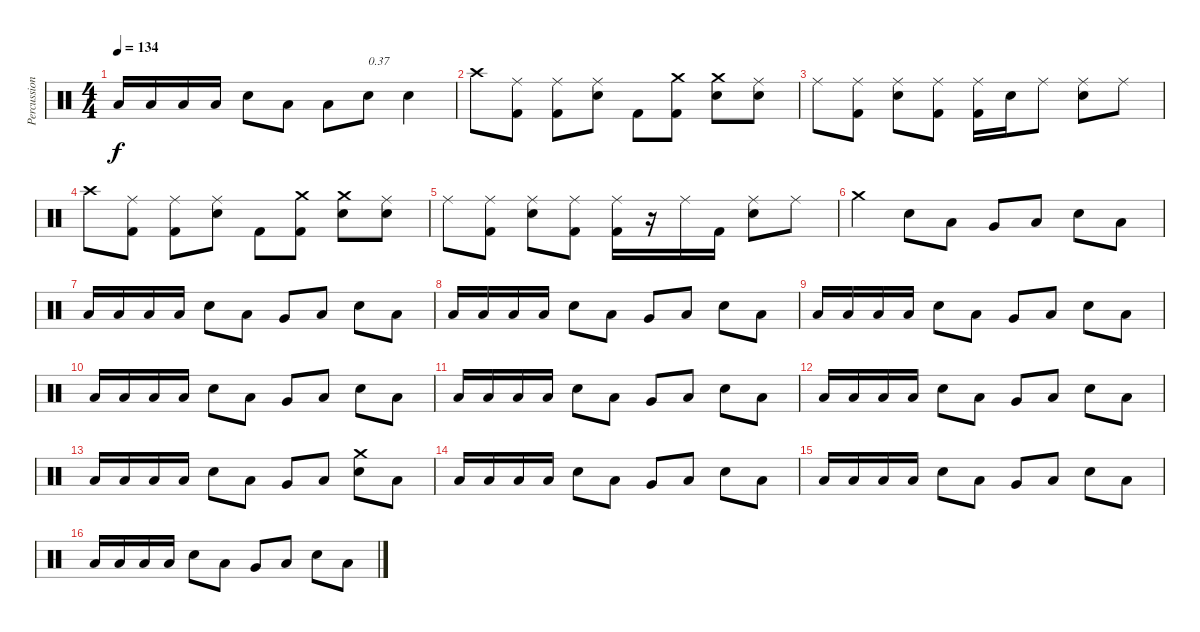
\track ("Percussions" "Percussion") {instrument percussion}
\staff {score}
\articulation defaults
\ts (4 4)
\tempo 134
\clef neutral
\ks c "Low Floor Tom (hit)".16{dy f} "Low Floor Tom (hit)".16 "Low Floor Tom (hit)".16 "Low Floor Tom (hit)".16 "Electric Snare (hit)".8 "Low Floor Tom (hit)".8 "Low Floor Tom (hit)".8 "Electric Snare (hit)".8{txt "0.37"} "Electric Snare (hit)".4
|
"Crash high (hit)".8 ("Kick (hit) 2" "Ride (middle)").8 ("Kick (hit) 2" "Ride (middle)").8 ("Electric Snare (hit)" "Ride (middle)").8 "Kick (hit) 2".8 ("Kick (hit) 2" "Crash medium (hit)").8 ("Electric Snare (hit)" "Crash medium (hit)").8 ("Electric Snare (hit)" "Ride (middle)").8 |
"Ride (middle)".8 ("Kick (hit) 2" "Ride (middle)").8 ("Electric Snare (hit)" "Ride (middle)").8 ("Kick (hit) 2" "Ride (middle)").8 ("Kick (hit) 2" "Ride (middle)").16 "Electric Snare (hit)".16 "Ride (middle)".8 ("Electric Snare (hit)" "Ride (middle)").8 "Ride (middle)".8 |
"Crash high (hit)".8 ("Kick (hit) 2" "Ride (middle)").8 ("Kick (hit) 2" "Ride (middle)").8 ("Electric Snare (hit)" "Ride (middle)").8 "Kick (hit) 2".8 ("Kick (hit) 2" "Crash medium (hit)").8 ("Electric Snare (hit)" "Crash medium (hit)").8 ("Electric Snare (hit)" "Ride (middle)").8 |
"Ride (middle)".8 ("Kick (hit) 2" "Ride (middle)").8 ("Electric Snare (hit)" "Ride (middle)").8 ("Kick (hit) 2" "Ride (middle)").8 ("Kick (hit) 2" "Ride (middle)").16 r.16 "Ride (middle)".16 "Kick (hit) 2".16 ("Electric Snare (hit)" "Ride (middle)").8 "Ride (middle)".8 |
"Crash medium (hit)".4 "Electric Snare (hit)".8 "Low Floor Tom (hit)".8 "Very Low Tom (hit)".8 "Low Floor Tom (hit)".8 "Electric Snare (hit)".8 "Low Floor Tom (hit)".8 |
"Low Floor Tom (hit)".16 "Low Floor Tom (hit)".16 "Low Floor Tom (hit)".16 "Low Floor Tom (hit)".16 "Electric Snare (hit)".8 "Low Floor Tom (hit)".8 "Very Low Tom (hit)".8 "Low Floor Tom (hit)".8 "Electric Snare (hit)".8 "Low Floor Tom (hit)".8 |
"Low Floor Tom (hit)".16 "Low Floor Tom (hit)".16 "Low Floor Tom (hit)".16 "Low Floor Tom (hit)".16 "Electric Snare (hit)".8 "Low Floor Tom (hit)".8 "Very Low Tom (hit)".8 "Low Floor Tom (hit)".8 "Electric Snare (hit)".8 "Low Floor Tom (hit)".8 |
"Low Floor Tom (hit)".16 "Low Floor Tom (hit)".16 "Low Floor Tom (hit)".16 "Low Floor Tom (hit)".16 "Electric Snare (hit)".8 "Low Floor Tom (hit)".8 "Very Low Tom (hit)".8 "Low Floor Tom (hit)".8 "Electric Snare (hit)".8 "Low Floor Tom (hit)".8 |
"Low Floor Tom (hit)".16 "Low Floor Tom (hit)".16 "Low Floor Tom (hit)".16 "Low Floor Tom (hit)".16 "Electric Snare (hit)".8 "Low Floor Tom (hit)".8 "Very Low Tom (hit)".8 "Low Floor Tom (hit)".8 "Electric Snare (hit)".8 "Low Floor Tom (hit)".8 |
"Low Floor Tom (hit)".16 "Low Floor Tom (hit)".16 "Low Floor Tom (hit)".16 "Low Floor Tom (hit)".16 "Electric Snare (hit)".8 "Low Floor Tom (hit)".8 "Very Low Tom (hit)".8 "Low Floor Tom (hit)".8 "Electric Snare (hit)".8 "Low Floor Tom (hit)".8 |
"Low Floor Tom (hit)".16 "Low Floor Tom (hit)".16 "Low Floor Tom (hit)".16 "Low Floor Tom (hit)".16 "Electric Snare (hit)".8 "Low Floor Tom (hit)".8 "Very Low Tom (hit)".8 "Low Floor Tom (hit)".8 "Electric Snare (hit)".8 "Low Floor Tom (hit)".8 |
"Low Floor Tom (hit)".16 "Low Floor Tom (hit)".16 "Low Floor Tom (hit)".16 "Low Floor Tom (hit)".16 "Electric Snare (hit)".8 "Low Floor Tom (hit)".8 "Very Low Tom (hit)".8 "Low Floor Tom (hit)".8 ("Electric Snare (hit)" "Crash medium (hit)").8 "Low Floor Tom (hit)".8 |
"Low Floor Tom (hit)".16 "Low Floor Tom (hit)".16 "Low Floor Tom (hit)".16 "Low Floor Tom (hit)".16 "Electric Snare (hit)".8 "Low Floor Tom (hit)".8 "Very Low Tom (hit)".8 "Low Floor Tom (hit)".8 "Electric Snare (hit)".8 "Low Floor Tom (hit)".8 |
"Low Floor Tom (hit)".16 "Low Floor Tom (hit)".16 "Low Floor Tom (hit)".16 "Low Floor Tom (hit)".16 "Electric Snare (hit)".8 "Low Floor Tom (hit)".8 "Very Low Tom (hit)".8 "Low Floor Tom (hit)".8 "Electric Snare (hit)".8 "Low Floor Tom (hit)".8 |
"Low Floor Tom (hit)".16 "Low Floor Tom (hit)".16 "Low Floor Tom (hit)".16 "Low Floor Tom (hit)".16 "Electric Snare (hit)".8 "Low Floor Tom (hit)".8 "Very Low Tom (hit)".8 "Low Floor Tom (hit)".8 "Electric Snare (hit)".8 "Low Floor Tom (hit)".8
